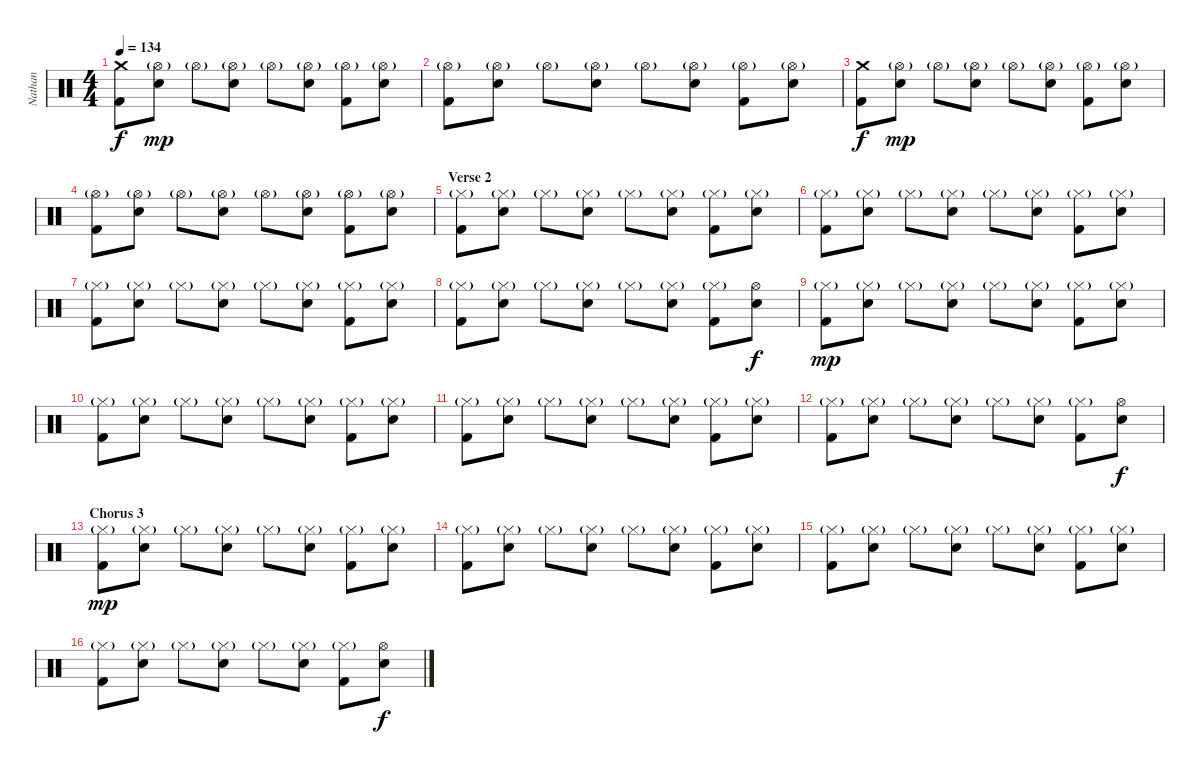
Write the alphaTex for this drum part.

\track ("Nathan" "Nathan") {instrument percussion}
\staff {score}
\articulation defaults
\ts (4 4)
\tempo 134
\clef neutral
\ks c
("Crash medium (hit)" "Kick (hit) 2").8{dy f} ("Hi-Hat (open)"{g} "Snare (hit) 2").8{dy mp} "Hi-Hat (open)"{g}.8 ("Hi-Hat (open)"{g} "Snare (hit) 2").8 "Hi-Hat (open)"{g}.8 ("Hi-Hat (open)"{g} "Snare (hit) 2").8 ("Hi-Hat (open)"{g} "Kick (hit) 2").8 ("Hi-Hat (open)"{g} "Snare (hit) 2").8 |
("Hi-Hat (open)"{g} "Kick (hit) 2").8 ("Hi-Hat (open)"{g} "Snare (hit) 2").8 "Hi-Hat (open)"{g}.8 ("Hi-Hat (open)"{g} "Snare (hit) 2").8 "Hi-Hat (open)"{g}.8 ("Hi-Hat (open)"{g} "Snare (hit) 2").8 ("Hi-Hat (open)"{g} "Kick (hit) 2").8 ("Hi-Hat (open)"{g} "Snare (hit) 2").8 |
("Crash medium (hit)" "Kick (hit) 2").8{dy f} ("Hi-Hat (open)"{g} "Snare (hit) 2").8{dy mp} "Hi-Hat (open)"{g}.8 ("Hi-Hat (open)"{g} "Snare (hit) 2").8 "Hi-Hat (open)"{g}.8 ("Hi-Hat (open)"{g} "Snare (hit) 2").8 ("Hi-Hat (open)"{g} "Kick (hit) 2").8 ("Hi-Hat (open)"{g} "Snare (hit) 2").8 |
("Hi-Hat (open)"{g} "Kick (hit) 2").8 ("Hi-Hat (open)"{g} "Snare (hit) 2").8 "Hi-Hat (open)"{g}.8 ("Hi-Hat (open)"{g} "Snare (hit) 2").8 "Hi-Hat (open)"{g}.8 ("Hi-Hat (open)"{g} "Snare (hit) 2").8 ("Hi-Hat (open)"{g} "Kick (hit) 2").8 ("Hi-Hat (open)"{g} "Snare (hit) 2").8 |
\section ("" "Verse 2")
("Hi-Hat (closed)"{g} "Kick (hit) 2").8 ("Hi-Hat (closed)"{g} "Snare (hit) 2").8 "Hi-Hat (closed)"{g}.8 ("Hi-Hat (closed)"{g} "Snare (hit) 2").8 "Hi-Hat (closed)"{g}.8 ("Hi-Hat (closed)"{g} "Snare (hit) 2").8 ("Hi-Hat (closed)"{g} "Kick (hit) 2").8 ("Hi-Hat (closed)"{g} "Snare (hit) 2").8 |
("Hi-Hat (closed)"{g} "Kick (hit) 2").8 ("Hi-Hat (closed)"{g} "Snare (hit) 2").8 "Hi-Hat (closed)"{g}.8 ("Hi-Hat (closed)"{g} "Snare (hit) 2").8 "Hi-Hat (closed)"{g}.8 ("Hi-Hat (closed)"{g} "Snare (hit) 2").8 ("Hi-Hat (closed)"{g} "Kick (hit) 2").8 ("Hi-Hat (closed)"{g} "Snare (hit) 2").8 |
("Hi-Hat (closed)"{g} "Kick (hit) 2").8 ("Hi-Hat (closed)"{g} "Snare (hit) 2").8 "Hi-Hat (closed)"{g}.8 ("Hi-Hat (closed)"{g} "Snare (hit) 2").8 "Hi-Hat (closed)"{g}.8 ("Hi-Hat (closed)"{g} "Snare (hit) 2").8 ("Hi-Hat (closed)"{g} "Kick (hit) 2").8 ("Hi-Hat (closed)"{g} "Snare (hit) 2").8 |
("Hi-Hat (closed)"{g} "Kick (hit) 2").8 ("Hi-Hat (closed)"{g} "Snare (hit) 2").8 "Hi-Hat (closed)"{g}.8 ("Hi-Hat (closed)"{g} "Snare (hit) 2").8 "Hi-Hat (closed)"{g}.8 ("Hi-Hat (closed)"{g} "Snare (hit) 2").8 ("Hi-Hat (closed)"{g} "Kick (hit) 2").8 ("Hi-Hat (open)" "Snare (hit) 2").8{dy f} |
("Hi-Hat (closed)"{g} "Kick (hit) 2").8{dy mp} ("Hi-Hat (closed)"{g} "Snare (hit) 2").8 "Hi-Hat (closed)"{g}.8 ("Hi-Hat (closed)"{g} "Snare (hit) 2").8 "Hi-Hat (closed)"{g}.8 ("Hi-Hat (closed)"{g} "Snare (hit) 2").8 ("Hi-Hat (closed)"{g} "Kick (hit) 2").8 ("Hi-Hat (closed)"{g} "Snare (hit) 2").8 |
("Hi-Hat (closed)"{g} "Kick (hit) 2").8 ("Hi-Hat (closed)"{g} "Snare (hit) 2").8 "Hi-Hat (closed)"{g}.8 ("Hi-Hat (closed)"{g} "Snare (hit) 2").8 "Hi-Hat (closed)"{g}.8 ("Hi-Hat (closed)"{g} "Snare (hit) 2").8 ("Hi-Hat (closed)"{g} "Kick (hit) 2").8 ("Hi-Hat (closed)"{g} "Snare (hit) 2").8 |
("Hi-Hat (closed)"{g} "Kick (hit) 2").8 ("Hi-Hat (closed)"{g} "Snare (hit) 2").8 "Hi-Hat (closed)"{g}.8 ("Hi-Hat (closed)"{g} "Snare (hit) 2").8 "Hi-Hat (closed)"{g}.8 ("Hi-Hat (closed)"{g} "Snare (hit) 2").8 ("Hi-Hat (closed)"{g} "Kick (hit) 2").8 ("Hi-Hat (closed)"{g} "Snare (hit) 2").8 |
("Hi-Hat (closed)"{g} "Kick (hit) 2").8 ("Hi-Hat (closed)"{g} "Snare (hit) 2").8 "Hi-Hat (closed)"{g}.8 ("Hi-Hat (closed)"{g} "Snare (hit) 2").8 "Hi-Hat (closed)"{g}.8 ("Hi-Hat (closed)"{g} "Snare (hit) 2").8 ("Hi-Hat (closed)"{g} "Kick (hit) 2").8 ("Hi-Hat (open)" "Snare (hit) 2").8{dy f} |
\section ("" "Chorus 3")
("Hi-Hat (closed)"{g} "Kick (hit) 2").8{dy mp} ("Hi-Hat (closed)"{g} "Snare (hit) 2").8 "Hi-Hat (closed)"{g}.8 ("Hi-Hat (closed)"{g} "Snare (hit) 2").8 "Hi-Hat (closed)"{g}.8 ("Hi-Hat (closed)"{g} "Snare (hit) 2").8 ("Hi-Hat (closed)"{g} "Kick (hit) 2").8 ("Hi-Hat (closed)"{g} "Snare (hit) 2").8 |
("Hi-Hat (closed)"{g} "Kick (hit) 2").8 ("Hi-Hat (closed)"{g} "Snare (hit) 2").8 "Hi-Hat (closed)"{g}.8 ("Hi-Hat (closed)"{g} "Snare (hit) 2").8 "Hi-Hat (closed)"{g}.8 ("Hi-Hat (closed)"{g} "Snare (hit) 2").8 ("Hi-Hat (closed)"{g} "Kick (hit) 2").8 ("Hi-Hat (closed)"{g} "Snare (hit) 2").8 |
("Hi-Hat (closed)"{g} "Kick (hit) 2").8 ("Hi-Hat (closed)"{g} "Snare (hit) 2").8 "Hi-Hat (closed)"{g}.8 ("Hi-Hat (closed)"{g} "Snare (hit) 2").8 "Hi-Hat (closed)"{g}.8 ("Hi-Hat (closed)"{g} "Snare (hit) 2").8 ("Hi-Hat (closed)"{g} "Kick (hit) 2").8 ("Hi-Hat (closed)"{g} "Snare (hit) 2").8 |
("Hi-Hat (closed)"{g} "Kick (hit) 2").8 ("Hi-Hat (closed)"{g} "Snare (hit) 2").8 "Hi-Hat (closed)"{g}.8 ("Hi-Hat (closed)"{g} "Snare (hit) 2").8 "Hi-Hat (closed)"{g}.8 ("Hi-Hat (closed)"{g} "Snare (hit) 2").8 ("Hi-Hat (closed)"{g} "Kick (hit) 2").8 ("Hi-Hat (open)" "Snare (hit) 2").8{dy f}
